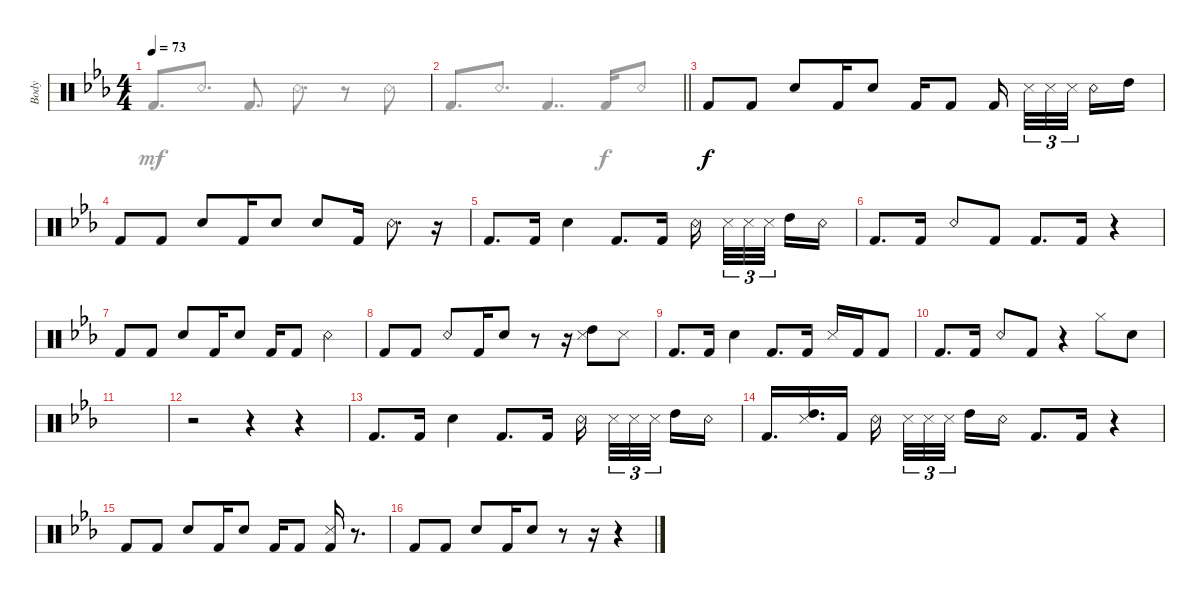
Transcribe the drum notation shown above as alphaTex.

\defaultSystemsLayout 2
\bracketExtendMode groupsimilarinstruments
\otherSystemsTrackNameOrientation horizontal
\track ("Drumkit" "Body ") {instrument percussion}
\staff {score}
\articulation defaults
\voice
\ts (4 4)
\scale
1.05991
\tempo 73
\accidentals auto
\clef neutral
\ottava regular
\simile none
\ks cminor
|
\scale
0.940093
\barLineRight lightlight
|
\scale
1.06459 "Kick (hit) 2"{acc forcenatural}.8{dy f beam Up} "Kick (hit) 2"{acc forcenatural}.8{beam Up} "Snare (hit) 2"{acc forcenatural}.8{beam Up} "Kick (hit) 2"{acc forcenatural}.16{beam Up} "Snare (hit) 2"{acc forcenatural}.8{beam Up} "Kick (hit) 2"{acc forcenatural}.16{beam Up} "Kick (hit) 2"{acc forcenatural}.8{beam Up} "Kick (hit) 2"{acc forcenatural}.16{beam Up} "Snare (side stick) 3"{acc forcenatural}.32{tu (3 2) beam Down} "Snare (side stick) 3"{acc forcenatural}.32{tu (3 2) beam Down} "Snare (side stick) 3"{acc forcenatural}.32{tu (3 2) beam Down} "Snare (rim shot)"{acc forcenatural}.16{beam Down} "High Tom (hit)"{acc forcenatural}.16{beam Down} |
\scale
0.935414 "Kick (hit) 2"{acc forcenatural}.8{beam Up} "Kick (hit) 2"{acc forcenatural}.8{beam Up} "Snare (hit) 2"{acc forcenatural}.8{beam Up} "Kick (hit) 2"{acc forcenatural}.16{beam Up} "Snare (hit) 2"{acc forcenatural}.8{beam Up} "Snare (hit) 2"{acc forcenatural}.8{beam Up} "Kick (hit) 2"{acc forcenatural}.16{beam Up} "Snare (rim shot)"{acc forcenatural}.8{d beam Down} r.16{beam Down} |
\scale
1.06459 "Kick (hit) 2"{acc forcenatural}.8{d beam Up} "Kick (hit) 2"{acc forcenatural}.16{beam Up} "Snare (hit) 2"{acc forcenatural}.4{beam Down} "Kick (hit) 2"{acc forcenatural}.8{d beam Up} "Kick (hit) 2"{acc forcenatural}.16{beam Up} "Snare (rim shot)"{acc forcenatural}.16{beam Down} "Snare (side stick) 3"{acc forcenatural}.32{tu (3 2) beam Down} "Snare (side stick) 3"{acc forcenatural}.32{tu (3 2) beam Down} "Snare (side stick) 3"{acc forcenatural}.32{tu (3 2) beam Down} "High Tom (hit)"{acc forcenatural}.16{beam Down} "Snare (rim shot)"{acc forcenatural}.16{beam Down} |
\scale
0.935414 "Kick (hit) 2"{acc forcenatural}.8{d beam Up} "Kick (hit) 2"{acc forcenatural}.16{beam Up} "Snare (rim shot)"{acc forcenatural}.8{beam Up} "Kick (hit) 2"{acc forcenatural}.8{beam Up} "Kick (hit) 2"{acc forcenatural}.8{d beam Up} "Kick (hit) 2"{acc forcenatural}.16{beam Up} r.4{beam Up} |
\scale
1.06459 "Kick (hit) 2"{acc forcenatural}.8{beam Up} "Kick (hit) 2"{acc forcenatural}.8{beam Up} "Snare (hit) 2"{acc forcenatural}.8{beam Up} "Kick (hit) 2"{acc forcenatural}.16{beam Up} "Snare (hit) 2"{acc forcenatural}.8{beam Up} "Kick (hit) 2"{acc forcenatural}.16{beam Up} "Kick (hit) 2"{acc forcenatural}.8{beam Up} "Snare (rim shot)"{acc forcenatural}.4{beam Down} |
\scale
0.935414 "Kick (hit) 2"{acc forcenatural}.8{beam Up} "Kick (hit) 2"{acc forcenatural}.8{beam Up} "Snare (rim shot)"{acc forcenatural}.8{beam Up} "Kick (hit) 2"{acc forcenatural}.16{beam Up} "Snare (hit) 2"{acc forcenatural}.8{beam Up} r.8{beam Up} r.16{beam Up} ("High Tom (hit)"{acc forcenatural} "Snare (side stick) 3"{acc forcenatural}).8{beam Down} "Snare (side stick) 3"{acc forcenatural}.8{beam Down} |
\scale
1.06459 "Kick (hit) 2"{acc forcenatural}.8{d beam Up} "Kick (hit) 2"{acc forcenatural}.16{beam Up} "Snare (hit) 2"{acc forcenatural}.4{beam Down} "Kick (hit) 2"{acc forcenatural}.8{d beam Up} "Kick (hit) 2"{acc forcenatural}.16{beam Up} "Snare (side stick) 3"{acc forcenatural}.16{beam Up} "Kick (hit) 2"{acc forcenatural}.16{beam Up} "Kick (hit) 2"{acc forcenatural}.8{beam Up} |
\scale
0.935414 "Kick (hit) 2"{acc forcenatural}.8{d beam Up} "Kick (hit) 2"{acc forcenatural}.16{beam Up} "Snare (rim shot)"{acc forcenatural}.8{beam Up} "Kick (hit) 2"{acc forcenatural}.8{beam Up} r.4{beam Up} "Hi-Hat (closed)"{acc forcenatural}.8{beam Down} "Snare (hit) 2"{acc forcenatural}.8{beam Down} |
\scale
1.07294 |
\scale
0.927059 r.2{beam Down} r.4{beam Down} r.4{beam Down} |
\scale
1.06459 "Kick (hit) 2"{acc forcenatural}.8{d beam Up} "Kick (hit) 2"{acc forcenatural}.16{beam Up} "Snare (hit) 2"{acc forcenatural}.4{beam Down} "Kick (hit) 2"{acc forcenatural}.8{d beam Up} "Kick (hit) 2"{acc forcenatural}.16{beam Up} "Snare (rim shot)"{acc forcenatural}.16{beam Down} "Snare (side stick) 3"{acc forcenatural}.32{tu (3 2) beam Down} "Snare (side stick) 3"{acc forcenatural}.32{tu (3 2) beam Down} "Snare (side stick) 3"{acc forcenatural}.32{tu (3 2) beam Down} "High Tom (hit)"{acc forcenatural}.16{beam Down} "Snare (rim shot)"{acc forcenatural}.16{beam Down} |
\scale
0.935414 "Kick (hit) 2"{acc forcenatural}.16{d beam Up} ("Snare (side stick) 3"{acc forcenatural} "High Tom (hit)"{acc forcenatural}).16{d beam Up} "Kick (hit) 2"{acc forcenatural}.16{beam Up} "Snare (rim shot)"{acc forcenatural}.16{beam Down} "Snare (side stick) 3"{acc forcenatural}.32{tu (3 2) beam Down} "Snare (side stick) 3"{acc forcenatural}.32{tu (3 2) beam Down} "Snare (side stick) 3"{acc forcenatural}.32{tu (3 2) beam Down} "High Tom (hit)"{acc forcenatural}.16{beam Down} "Snare (rim shot)"{acc forcenatural}.16{beam Down} "Kick (hit) 2"{acc forcenatural}.8{d beam Up} "Kick (hit) 2"{acc forcenatural}.16{beam Up} r.4{beam Up} |
\scale
1.06459 "Kick (hit) 2"{acc forcenatural}.8{beam Up} "Kick (hit) 2"{acc forcenatural}.8{beam Up} "Snare (hit) 2"{acc forcenatural}.8{beam Up} "Kick (hit) 2"{acc forcenatural}.16{beam Up} "Snare (hit) 2"{acc forcenatural}.8{beam Up} "Kick (hit) 2"{acc forcenatural}.16{beam Up} "Kick (hit) 2"{acc forcenatural}.8{beam Up} ("Kick (hit) 2"{acc forcenatural} "Snare (side stick) 3"{acc forcenatural}).16{beam Up} r.8{d beam Up} |
\scale
0.935414 "Kick (hit) 2"{acc forcenatural}.8{beam Up} "Kick (hit) 2"{acc forcenatural}.8{beam Up} "Snare (hit) 2"{acc forcenatural}.8{beam Up} "Kick (hit) 2"{acc forcenatural}.16{beam Up} "Snare (hit) 2"{acc forcenatural}.8{beam Up} r.8{beam Up} r.16{beam Up} r.4{beam Up}
\voice
\clef neutral
\ottava regular
\simile none
\ks cminor "Kick (hit) 2"{acc forcenatural}.8{d dy mf beam Up} "Snare (rim shot)"{acc forcenatural}.8{d beam Up} "Kick (hit) 2"{acc forcenatural}.8{d beam Up} "Snare (rim shot)"{acc forcenatural}.8{d beam Down}
r.8{beam Down} "Snare (rim shot)"{acc forcenatural}.8{beam Down} |
\barLineRight lightlight "Kick (hit) 2"{acc forcenatural}.8{d beam Up} "Snare (rim shot)"{acc forcenatural}.8{d beam Up} "Kick (hit) 2"{acc forcenatural}.4{dd beam Up} "Kick (hit) 2"{acc forcenatural}.16{dy f beam Up} "Snare (rim shot)"{acc forcenatural}.8{beam Up}
|
|
|
|
|
|
|
|
|
|
|
|
|
|
